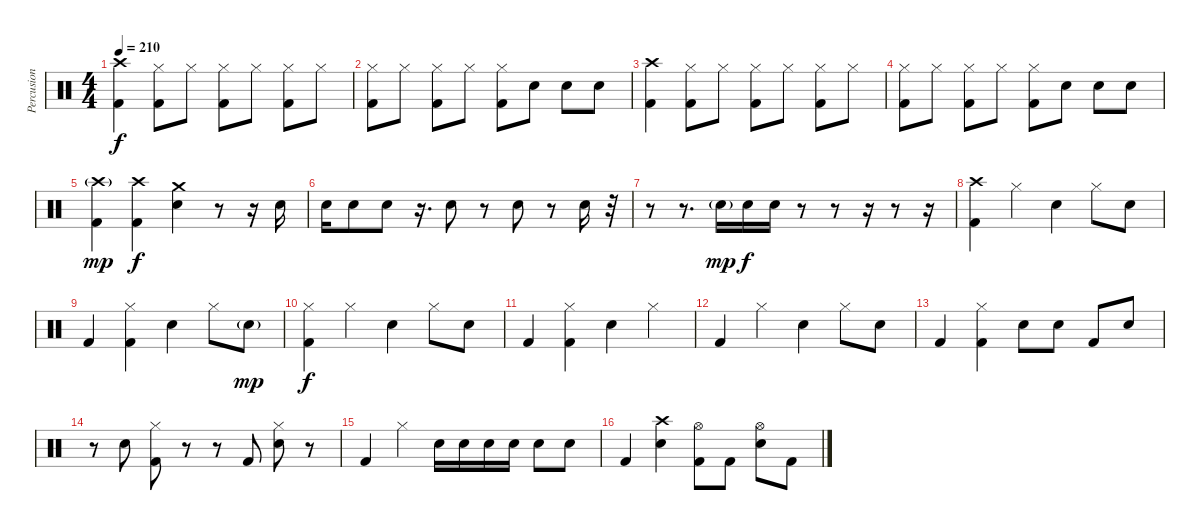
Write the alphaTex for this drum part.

\track ("Percusion" "Percusion") {instrument percussion}
\staff {score}
\articulation defaults
\ts (4 4)
\tempo 210
\clef neutral
\ks c
("Crash high (hit)" "Kick (hit) 2").4{dy f} ("Hi-Hat (closed)" "Kick (hit) 2").8 "Hi-Hat (closed)".8 ("Hi-Hat (closed)" "Kick (hit) 2").8 "Hi-Hat (closed)".8 ("Hi-Hat (closed)" "Kick (hit) 2").8 "Hi-Hat (closed)".8 |
("Hi-Hat (closed)" "Kick (hit) 2").8 "Hi-Hat (closed)".8 ("Hi-Hat (closed)" "Kick (hit) 2").8 "Hi-Hat (closed)".8 ("Hi-Hat (closed)" "Kick (hit) 2").8 "Snare (hit) 2".8 "Snare (hit) 2".8 "Snare (hit) 2".8 |
("Crash high (hit)" "Kick (hit) 2").4 ("Hi-Hat (closed)" "Kick (hit) 2").8 "Hi-Hat (closed)".8 ("Hi-Hat (closed)" "Kick (hit) 2").8 "Hi-Hat (closed)".8 ("Hi-Hat (closed)" "Kick (hit) 2").8 "Hi-Hat (closed)".8 |
("Hi-Hat (closed)" "Kick (hit) 2").8 "Hi-Hat (closed)".8 ("Hi-Hat (closed)" "Kick (hit) 2").8 "Hi-Hat (closed)".8 ("Hi-Hat (closed)" "Kick (hit) 2").8 "Snare (hit) 2".8 "Snare (hit) 2".8 "Snare (hit) 2".8 |
("Crash high (hit)"{g} "Kick (hit) 2").4{dy mp} ("Crash high (hit)" "Kick (hit) 2").4{dy f} ("Crash medium (hit)" "Snare (hit) 2").4 r.8 r.16 "Snare (hit) 2".16 |
"Snare (hit) 2".16 "Snare (hit) 2".8 "Snare (hit) 2".8 r.16{d} "Snare (hit) 2".8 r.8 "Snare (hit) 2".8 r.8 "Snare (hit) 2".16 r.32 |
r.8 r.8{d} "Snare (hit) 2"{g}.16{dy mp} "Snare (hit) 2".16{dy f} "Snare (hit) 2".16 r.8 r.8 r.16 r.8 r.16 |
("Crash high (hit)" "Kick (hit) 2").4 "Hi-Hat (closed)".4 "Snare (hit) 2".4 "Hi-Hat (closed)".8 "Snare (hit) 2".8 |
"Kick (hit) 2".4 ("Hi-Hat (closed)" "Kick (hit) 2").4 "Snare (hit) 2".4 "Hi-Hat (closed)".8 "Snare (hit) 2"{g}.8{dy mp} |
("Hi-Hat (closed)" "Kick (hit) 2").4{dy f} "Hi-Hat (closed)".4 "Snare (hit) 2".4 "Hi-Hat (closed)".8 "Snare (hit) 2".8 |
"Kick (hit) 2".4 ("Hi-Hat (closed)" "Kick (hit) 2").4 "Snare (hit) 2".4 "Hi-Hat (closed)".4 |
"Kick (hit) 2".4 "Hi-Hat (closed)".4 "Snare (hit) 2".4 "Hi-Hat (closed)".8 "Snare (hit) 2".8 |
"Kick (hit) 2".4 ("Hi-Hat (closed)" "Kick (hit) 2").4 "Snare (hit) 2".8 "Snare (hit) 2".8 "Kick (hit) 2".8 "Snare (hit) 2".8 |
r.8 "Snare (hit) 2".8 ("Hi-Hat (closed)" "Kick (hit) 2").8 r.8 r.8 "Kick (hit) 2".8 ("Hi-Hat (closed)" "Snare (hit) 2").8 r.8 |
"Kick (hit) 2".4 "Hi-Hat (closed)".4 "Snare (hit) 2".16 "Snare (hit) 2".16 "Snare (hit) 2".16 "Snare (hit) 2".16 "Snare (hit) 2".8 "Snare (hit) 2".8 |
"Kick (hit) 2".4 ("Crash high (hit)" "Snare (hit) 2").4 ("Hi-Hat (open)" "Kick (hit) 2").8 "Kick (hit) 2".8 ("Hi-Hat (open)" "Snare (hit) 2").8 "Kick (hit) 2".8
